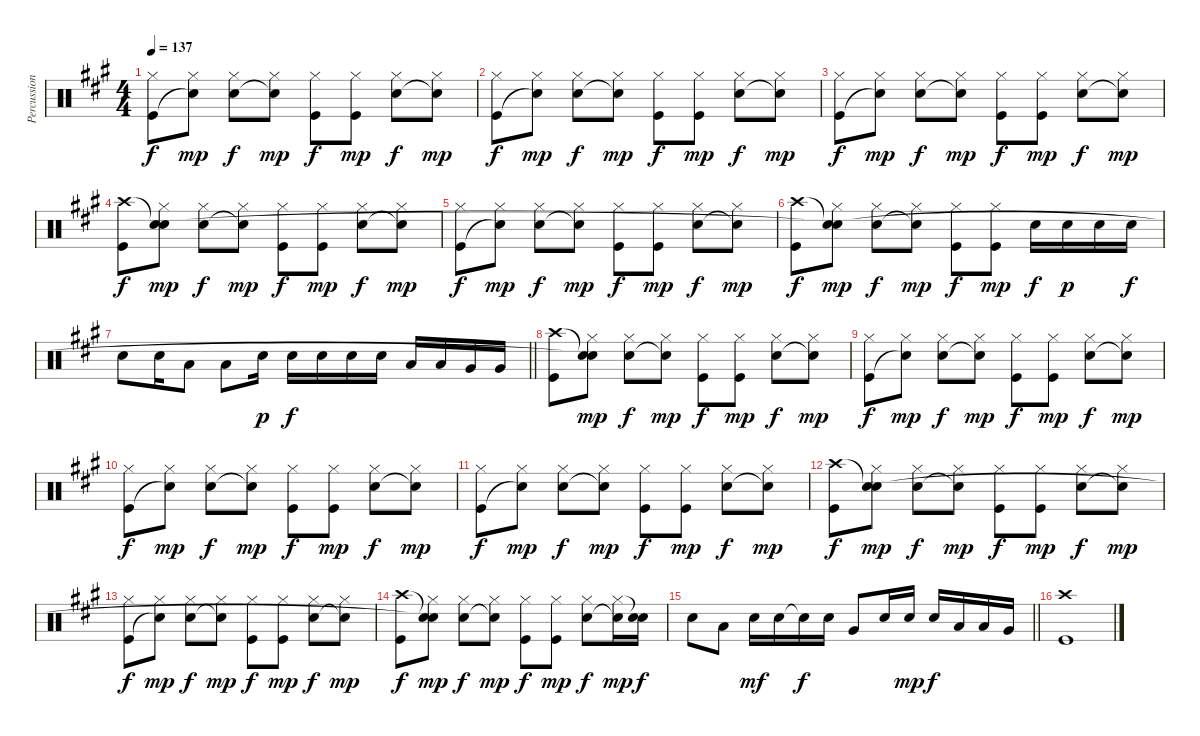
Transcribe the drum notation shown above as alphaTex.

\track ("Percussion" "Percussion") {instrument percussion}
\staff {score}
\articulation defaults
\ts (4 4)
\tempo 137
\clef neutral
\ks a
("Hi-Hat (closed)" "Kick (hit)").8{dy f} ("Hi-Hat (closed)" "Snare (hit)"{t}).8{dy mp} ("Hi-Hat (closed)" "Electric Snare (hit)").8{dy f} ("Hi-Hat (closed)" "Snare (hit)"{t}).8{dy mp} ("Hi-Hat (closed)" "Kick (hit)").8{dy f} ("Hi-Hat (closed)" "Kick (hit)").8{dy mp} ("Hi-Hat (closed)" "Electric Snare (hit)").8{dy f} ("Hi-Hat (closed)" "Snare (hit)"{t}).8{dy mp} |
("Hi-Hat (closed)" "Kick (hit)").8{dy f} ("Hi-Hat (closed)" "Snare (hit)"{t}).8{dy mp} ("Hi-Hat (closed)" "Electric Snare (hit)").8{dy f} ("Hi-Hat (closed)" "Snare (hit)"{t}).8{dy mp} ("Hi-Hat (closed)" "Kick (hit)").8{dy f} ("Hi-Hat (closed)" "Kick (hit)").8{dy mp} ("Hi-Hat (closed)" "Electric Snare (hit)").8{dy f} ("Hi-Hat (closed)" "Snare (hit)"{t}).8{dy mp} |
("Hi-Hat (closed)" "Kick (hit)").8{dy f} ("Hi-Hat (closed)" "Snare (hit)"{t}).8{dy mp} ("Hi-Hat (closed)" "Electric Snare (hit)").8{dy f} ("Hi-Hat (closed)" "Snare (hit)"{t}).8{dy mp} ("Hi-Hat (closed)" "Kick (hit)").8{dy f} ("Hi-Hat (closed)" "Kick (hit)").8{dy mp} ("Hi-Hat (closed)" "Electric Snare (hit)").8{dy f} ("Hi-Hat (closed)" "Snare (hit)"{t}).8{dy mp} |
("Crash high (hit)" "Kick (hit)").8{dy f} ("Snare (hit)"{t} "Hi-Hat (closed)" "Snare (hit)").8{dy mp} ("Hi-Hat (closed)" "Electric Snare (hit)").8{dy f} ("Hi-Hat (closed)" "Snare (hit)"{t}).8{dy mp} ("Hi-Hat (closed)" "Kick (hit)").8{dy f} ("Hi-Hat (closed)" "Kick (hit)").8{dy mp} ("Hi-Hat (closed)" "Electric Snare (hit)").8{dy f} ("Hi-Hat (closed)" "Snare (hit)"{t}).8{dy mp} |
("Hi-Hat (closed)" "Kick (hit)").8{dy f} ("Hi-Hat (closed)" "Snare (hit)"{t}).8{dy mp} ("Hi-Hat (closed)" "Electric Snare (hit)").8{dy f} ("Hi-Hat (closed)" "Snare (hit)"{t}).8{dy mp} ("Hi-Hat (closed)" "Kick (hit)").8{dy f} ("Hi-Hat (closed)" "Kick (hit)").8{dy mp} ("Hi-Hat (closed)" "Electric Snare (hit)").8{dy f} ("Hi-Hat (closed)" "Snare (hit)"{t}).8{dy mp} |
("Crash high (hit)" "Kick (hit)").8{dy f} ("Snare (hit)"{t} "Hi-Hat (closed)" "Snare (hit)"{t}).8{dy mp} ("Hi-Hat (closed)" "Electric Snare (hit)").8{dy f} ("Hi-Hat (closed)" "Snare (hit)"{t}).8{dy mp} ("Hi-Hat (closed)" "Kick (hit)").8{dy f} ("Hi-Hat (closed)" "Kick (hit)").8{dy mp} "Electric Snare (hit)".16{dy f} "Electric Snare (hit)".16{dy p} "Electric Snare (hit)".16 "Electric Snare (hit)".16{dy f} |
\barLineRight lightlight "Electric Snare (hit)".8 "Electric Snare (hit)".16 "Low Tom (hit)".8 "Low Tom (hit)".8 "Electric Snare (hit)".16{dy p} "Electric Snare (hit)".16{dy f} "Electric Snare (hit)".16 "Electric Snare (hit)".16 "Electric Snare (hit)".16 "Low Tom (hit)".16 "Low Tom (hit)".16 "Very Low Tom (hit)".16 "Very Low Tom (hit)".16
|
("Crash high (hit)" "Kick (hit)").8 ("Snare (hit)"{t} "Hi-Hat (closed)" "Snare (hit)"{t}).8{dy mp} ("Hi-Hat (closed)" "Electric Snare (hit)").8{dy f} ("Hi-Hat (closed)" "Snare (hit)"{t}).8{dy mp} ("Hi-Hat (closed)" "Kick (hit)").8{dy f} ("Hi-Hat (closed)" "Kick (hit)").8{dy mp} ("Hi-Hat (closed)" "Electric Snare (hit)").8{dy f} ("Hi-Hat (closed)" "Snare (hit)"{t}).8{dy mp} |
("Hi-Hat (closed)" "Kick (hit)").8{dy f} ("Hi-Hat (closed)" "Snare (hit)"{t}).8{dy mp} ("Hi-Hat (closed)" "Electric Snare (hit)").8{dy f} ("Hi-Hat (closed)" "Snare (hit)"{t}).8{dy mp} ("Hi-Hat (closed)" "Kick (hit)").8{dy f} ("Hi-Hat (closed)" "Kick (hit)").8{dy mp} ("Hi-Hat (closed)" "Electric Snare (hit)").8{dy f} ("Hi-Hat (closed)" "Snare (hit)"{t}).8{dy mp} |
("Hi-Hat (closed)" "Kick (hit)").8{dy f} ("Hi-Hat (closed)" "Snare (hit)"{t}).8{dy mp} ("Hi-Hat (closed)" "Electric Snare (hit)").8{dy f} ("Hi-Hat (closed)" "Snare (hit)"{t}).8{dy mp} ("Hi-Hat (closed)" "Kick (hit)").8{dy f} ("Hi-Hat (closed)" "Kick (hit)").8{dy mp} ("Hi-Hat (closed)" "Electric Snare (hit)").8{dy f} ("Hi-Hat (closed)" "Snare (hit)"{t}).8{dy mp} |
("Hi-Hat (closed)" "Kick (hit)").8{dy f} ("Hi-Hat (closed)" "Snare (hit)"{t}).8{dy mp} ("Hi-Hat (closed)" "Electric Snare (hit)").8{dy f} ("Hi-Hat (closed)" "Snare (hit)"{t}).8{dy mp} ("Hi-Hat (closed)" "Kick (hit)").8{dy f} ("Hi-Hat (closed)" "Kick (hit)").8{dy mp} ("Hi-Hat (closed)" "Electric Snare (hit)").8{dy f} ("Hi-Hat (closed)" "Snare (hit)"{t}).8{dy mp} |
("Crash high (hit)" "Kick (hit)").8{dy f} ("Snare (hit)"{t} "Hi-Hat (closed)" "Snare (hit)").8{dy mp} ("Hi-Hat (closed)" "Electric Snare (hit)").8{dy f} ("Hi-Hat (closed)" "Snare (hit)"{t}).8{dy mp} ("Hi-Hat (closed)" "Kick (hit)").8{dy f} ("Hi-Hat (closed)" "Kick (hit)").8{dy mp} ("Hi-Hat (closed)" "Electric Snare (hit)").8{dy f} ("Hi-Hat (closed)" "Snare (hit)"{t}).8{dy mp} |
("Hi-Hat (closed)" "Kick (hit)").8{dy f} ("Hi-Hat (closed)" "Snare (hit)"{t}).8{dy mp} ("Hi-Hat (closed)" "Electric Snare (hit)").8{dy f} ("Hi-Hat (closed)" "Snare (hit)"{t}).8{dy mp} ("Hi-Hat (closed)" "Kick (hit)").8{dy f} ("Hi-Hat (closed)" "Kick (hit)").8{dy mp} ("Hi-Hat (closed)" "Electric Snare (hit)").8{dy f} ("Hi-Hat (closed)" "Snare (hit)"{t}).8{dy mp} |
("Crash high (hit)" "Kick (hit)").8{dy f} ("Snare (hit)"{t} "Hi-Hat (closed)" "Snare (hit)"{t}).8{dy mp} ("Hi-Hat (closed)" "Electric Snare (hit)").8{dy f} ("Hi-Hat (closed)" "Snare (hit)"{t}).8{dy mp} ("Hi-Hat (closed)" "Kick (hit)").8{dy f} ("Hi-Hat (closed)" "Kick (hit)").8{dy mp} ("Hi-Hat (closed)" "Electric Snare (hit)").8{dy f} ("Hi-Hat (closed)" "Electric Snare (hit)"{t}).16{dy mp} ("Snare (hit)"{t} "Electric Snare (hit)").16{dy f} |
\barLineRight lightlight "Electric Snare (hit)".8 "Low Tom (hit)".8 "Electric Snare (hit)".16{dy mf} "Electric Snare (hit)".16 "Electric Snare (hit)"{t}.16{dy f} "Electric Snare (hit)".16 "Very Low Tom (hit)".8 "Electric Snare (hit)".16 "Electric Snare (hit)".16{dy mp} "Electric Snare (hit)".16{dy f} "Low Tom (hit)".16 "Low Tom (hit)".16 "Very Low Tom (hit)".16
|
("Crash high (hit)" "Kick (hit)").1
